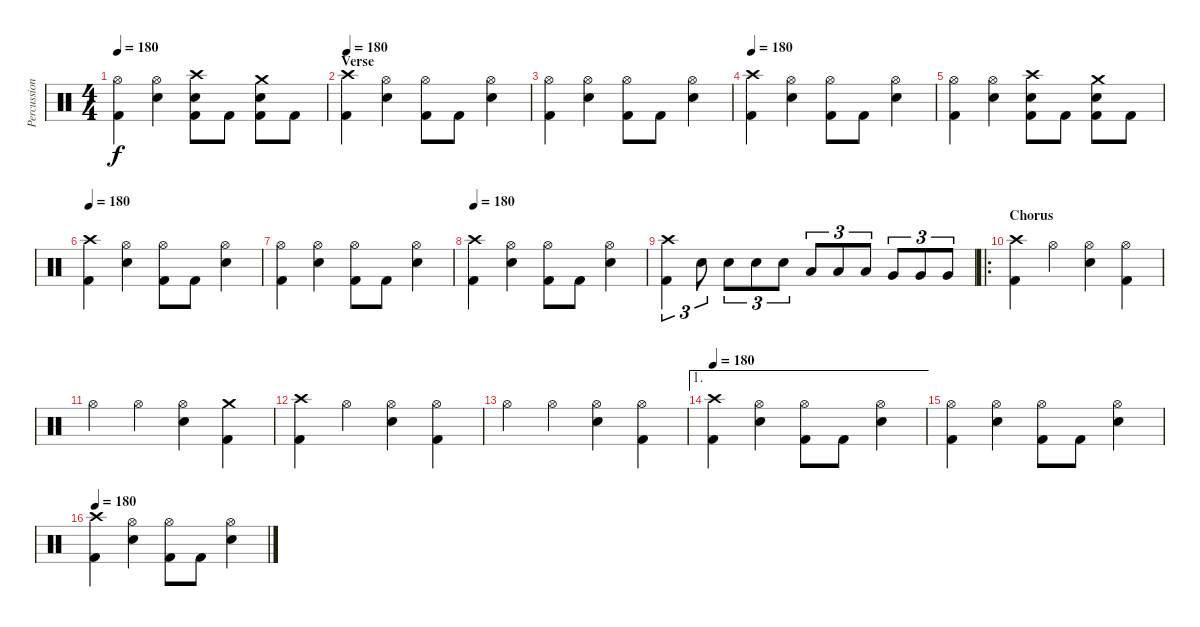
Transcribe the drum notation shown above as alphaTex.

\track ("Percussion" "Percussion") {instrument percussion}
\staff {score}
\articulation defaults
\ts (4 4)
\tempo 180
\clef neutral
\ks c
("Hi-Hat (open)" "Kick (hit) 2").4{dy f} ("Hi-Hat (open)" "Snare (hit) 2").4 ("Crash high (hit)" "Snare (hit) 2" "Kick (hit) 2").8 "Kick (hit) 2".8 ("Crash medium (hit)" "Snare (hit) 2" "Kick (hit) 2").8 "Kick (hit) 2".8 |
\section ("" "Verse")
\tempo 180
("Crash high (hit)" "Kick (hit) 2").4 ("Hi-Hat (open)" "Snare (hit) 2").4 ("Hi-Hat (open)" "Kick (hit) 2").8 "Kick (hit) 2".8 ("Hi-Hat (open)" "Snare (hit) 2").4 |
("Hi-Hat (open)" "Kick (hit) 2").4 ("Hi-Hat (open)" "Snare (hit) 2").4 ("Hi-Hat (open)" "Kick (hit) 2").8 "Kick (hit) 2".8 ("Hi-Hat (open)" "Snare (hit) 2").4 |
\tempo 180
("Crash high (hit)" "Kick (hit) 2").4 ("Hi-Hat (open)" "Snare (hit) 2").4 ("Hi-Hat (open)" "Kick (hit) 2").8 "Kick (hit) 2".8 ("Hi-Hat (open)" "Snare (hit) 2").4 |
("Hi-Hat (open)" "Kick (hit) 2").4 ("Hi-Hat (open)" "Snare (hit) 2").4 ("Crash high (hit)" "Snare (hit) 2" "Kick (hit) 2").8 "Kick (hit) 2".8 ("Crash medium (hit)" "Snare (hit) 2" "Kick (hit) 2").8 "Kick (hit) 2".8 |
\tempo 180
("Crash high (hit)" "Kick (hit) 2").4 ("Hi-Hat (open)" "Snare (hit) 2").4 ("Hi-Hat (open)" "Kick (hit) 2").8 "Kick (hit) 2".8 ("Hi-Hat (open)" "Snare (hit) 2").4 |
("Hi-Hat (open)" "Kick (hit) 2").4 ("Hi-Hat (open)" "Snare (hit) 2").4 ("Hi-Hat (open)" "Kick (hit) 2").8 "Kick (hit) 2".8 ("Hi-Hat (open)" "Snare (hit) 2").4 |
\tempo 180
("Crash high (hit)" "Kick (hit) 2").4 ("Hi-Hat (open)" "Snare (hit) 2").4 ("Hi-Hat (open)" "Kick (hit) 2").8 "Kick (hit) 2".8 ("Hi-Hat (open)" "Snare (hit) 2").4 |
("Crash high (hit)" "Kick (hit) 2").4{tu (3 2)} "Snare (hit) 2".8{tu (3 2)} "Snare (hit) 2".8{tu (3 2)} "Snare (hit) 2".8{tu (3 2)} "Snare (hit) 2".8{tu (3 2)} "Low Tom (hit)".8{tu (3 2)} "Low Tom (hit)".8{tu (3 2)} "Low Tom (hit)".8{tu (3 2)} "Very Low Tom (hit)".8{tu (3 2)} "Very Low Tom (hit)".8{tu (3 2)} "Very Low Tom (hit)".8{tu (3 2)} |
\ro
\section ("" "Chorus")
("Crash high (hit)" "Kick (hit) 2").4 "Hi-Hat (open)".4 ("Hi-Hat (open)" "Snare (hit) 2").4 ("Hi-Hat (open)" "Kick (hit) 2").4 |
"Hi-Hat (open)".4 "Hi-Hat (open)".4 ("Hi-Hat (open)" "Snare (hit) 2").4 ("Crash medium (hit)" "Kick (hit) 2").4 |
("Crash high (hit)" "Kick (hit) 2").4 "Hi-Hat (open)".4 ("Hi-Hat (open)" "Snare (hit) 2").4 ("Hi-Hat (open)" "Kick (hit) 2").4 |
"Hi-Hat (open)".4 "Hi-Hat (open)".4 ("Hi-Hat (open)" "Snare (hit) 2").4 ("Hi-Hat (open)" "Kick (hit) 2").4 |
\ae 1
\tempo 180
("Crash high (hit)" "Kick (hit) 2").4 ("Hi-Hat (open)" "Snare (hit) 2").4 ("Hi-Hat (open)" "Kick (hit) 2").8 "Kick (hit) 2".8 ("Hi-Hat (open)" "Snare (hit) 2").4 |
("Hi-Hat (open)" "Kick (hit) 2").4 ("Hi-Hat (open)" "Snare (hit) 2").4 ("Hi-Hat (open)" "Kick (hit) 2").8 "Kick (hit) 2".8 ("Hi-Hat (open)" "Snare (hit) 2").4 |
\tempo 180
("Crash high (hit)" "Kick (hit) 2").4 ("Hi-Hat (open)" "Snare (hit) 2").4 ("Hi-Hat (open)" "Kick (hit) 2").8 "Kick (hit) 2".8 ("Hi-Hat (open)" "Snare (hit) 2").4
